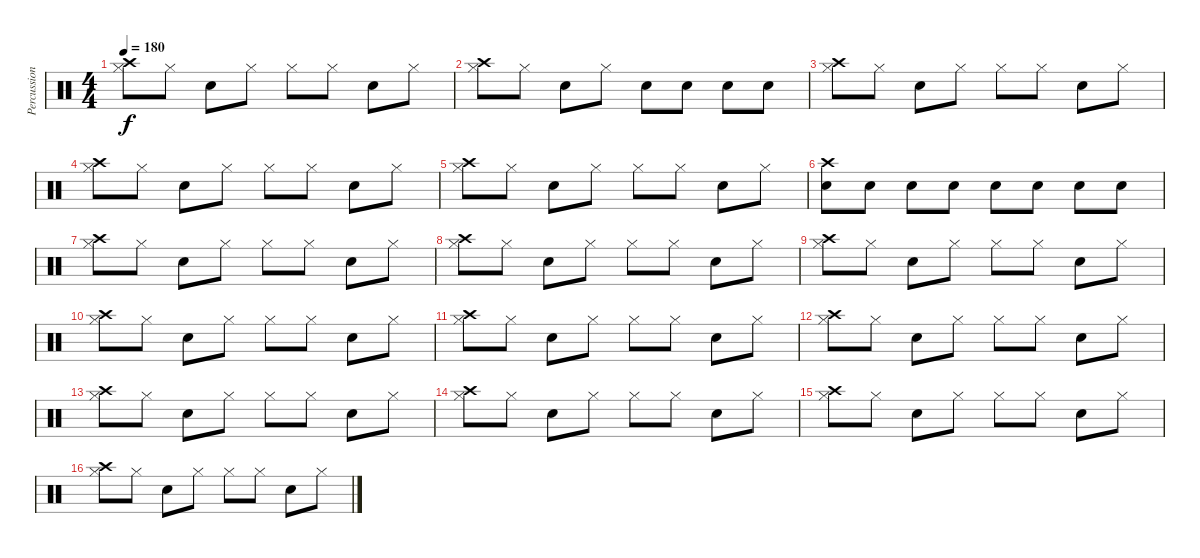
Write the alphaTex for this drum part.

\track ("Percussion" "Percussion") {instrument percussion}
\staff {score}
\articulation defaults
\ts (4 4)
\tempo 180
\clef neutral
\ks c
("Crash high (hit)" "Hi-Hat (closed)").8{dy f} "Hi-Hat (closed)".8 "Electric Snare (hit)".8 "Hi-Hat (closed)".8 "Hi-Hat (closed)".8 "Hi-Hat (closed)".8 "Electric Snare (hit)".8 "Hi-Hat (closed)".8 |
("Crash high (hit)" "Hi-Hat (closed)").8 "Hi-Hat (closed)".8 "Electric Snare (hit)".8 "Hi-Hat (closed)".8 "Electric Snare (hit)".8 "Electric Snare (hit)".8 "Electric Snare (hit)".8 "Electric Snare (hit)".8 |
("Crash high (hit)" "Hi-Hat (closed)").8 "Hi-Hat (closed)".8 "Electric Snare (hit)".8 "Hi-Hat (closed)".8 "Hi-Hat (closed)".8 "Hi-Hat (closed)".8 "Electric Snare (hit)".8 "Hi-Hat (closed)".8 |
("Crash high (hit)" "Hi-Hat (closed)").8 "Hi-Hat (closed)".8 "Electric Snare (hit)".8 "Hi-Hat (closed)".8 "Hi-Hat (closed)".8 "Hi-Hat (closed)".8 "Electric Snare (hit)".8 "Hi-Hat (closed)".8 |
("Crash high (hit)" "Hi-Hat (closed)").8 "Hi-Hat (closed)".8 "Electric Snare (hit)".8 "Hi-Hat (closed)".8 "Hi-Hat (closed)".8 "Hi-Hat (closed)".8 "Electric Snare (hit)".8 "Hi-Hat (closed)".8 |
("Crash high (hit)" "Electric Snare (hit)").8 "Electric Snare (hit)".8 "Electric Snare (hit)".8 "Electric Snare (hit)".8 "Electric Snare (hit)".8 "Electric Snare (hit)".8 "Electric Snare (hit)".8 "Electric Snare (hit)".8 |
("Crash high (hit)" "Hi-Hat (closed)").8 "Hi-Hat (closed)".8 "Electric Snare (hit)".8 "Hi-Hat (closed)".8 "Hi-Hat (closed)".8 "Hi-Hat (closed)".8 "Electric Snare (hit)".8 "Hi-Hat (closed)".8 |
("Crash high (hit)" "Hi-Hat (closed)").8 "Hi-Hat (closed)".8 "Electric Snare (hit)".8 "Hi-Hat (closed)".8 "Hi-Hat (closed)".8 "Hi-Hat (closed)".8 "Electric Snare (hit)".8 "Hi-Hat (closed)".8 |
("Crash high (hit)" "Hi-Hat (closed)").8 "Hi-Hat (closed)".8 "Electric Snare (hit)".8 "Hi-Hat (closed)".8 "Hi-Hat (closed)".8 "Hi-Hat (closed)".8 "Electric Snare (hit)".8 "Hi-Hat (closed)".8 |
("Crash high (hit)" "Hi-Hat (closed)").8 "Hi-Hat (closed)".8 "Electric Snare (hit)".8 "Hi-Hat (closed)".8 "Hi-Hat (closed)".8 "Hi-Hat (closed)".8 "Electric Snare (hit)".8 "Hi-Hat (closed)".8 |
("Crash high (hit)" "Hi-Hat (closed)").8 "Hi-Hat (closed)".8 "Electric Snare (hit)".8 "Hi-Hat (closed)".8 "Hi-Hat (closed)".8 "Hi-Hat (closed)".8 "Electric Snare (hit)".8 "Hi-Hat (closed)".8 |
("Crash high (hit)" "Hi-Hat (closed)").8 "Hi-Hat (closed)".8 "Electric Snare (hit)".8 "Hi-Hat (closed)".8 "Hi-Hat (closed)".8 "Hi-Hat (closed)".8 "Electric Snare (hit)".8 "Hi-Hat (closed)".8 |
("Crash high (hit)" "Hi-Hat (closed)").8 "Hi-Hat (closed)".8 "Electric Snare (hit)".8 "Hi-Hat (closed)".8 "Hi-Hat (closed)".8 "Hi-Hat (closed)".8 "Electric Snare (hit)".8 "Hi-Hat (closed)".8 |
("Crash high (hit)" "Hi-Hat (closed)").8 "Hi-Hat (closed)".8 "Electric Snare (hit)".8 "Hi-Hat (closed)".8 "Hi-Hat (closed)".8 "Hi-Hat (closed)".8 "Electric Snare (hit)".8 "Hi-Hat (closed)".8 |
("Crash high (hit)" "Hi-Hat (closed)").8 "Hi-Hat (closed)".8 "Electric Snare (hit)".8 "Hi-Hat (closed)".8 "Hi-Hat (closed)".8 "Hi-Hat (closed)".8 "Electric Snare (hit)".8 "Hi-Hat (closed)".8 |
("Crash high (hit)" "Hi-Hat (closed)").8 "Hi-Hat (closed)".8 "Electric Snare (hit)".8 "Hi-Hat (closed)".8 "Hi-Hat (closed)".8 "Hi-Hat (closed)".8 "Electric Snare (hit)".8 "Hi-Hat (closed)".8
